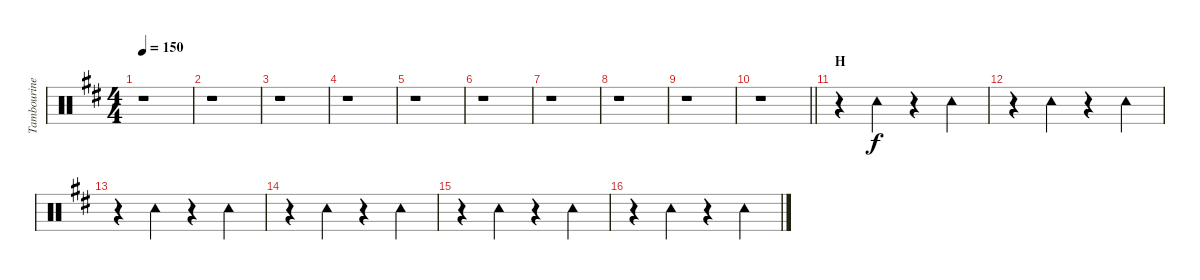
\track ("Tambourine" "Tambourine") {instrument percussion}
\staff {score}
\articulation defaults
\ts (4 4)
\tempo 150
\clef neutral
\ks d
r.1{dy f} |
r.1 |
r.1 |
r.1 |
r.1 |
r.1 |
r.1 |
r.1 |
r.1 |
\barLineRight lightlight
r.1 |
\section ("" "H")
r.4 "Tambourine (hit)".4 r.4 "Tambourine (hit)".4 |
r.4 "Tambourine (hit)".4 r.4 "Tambourine (hit)".4 |
r.4 "Tambourine (hit)".4 r.4 "Tambourine (hit)".4 |
r.4 "Tambourine (hit)".4 r.4 "Tambourine (hit)".4 |
r.4 "Tambourine (hit)".4 r.4 "Tambourine (hit)".4 |
r.4 "Tambourine (hit)".4 r.4 "Tambourine (hit)".4
